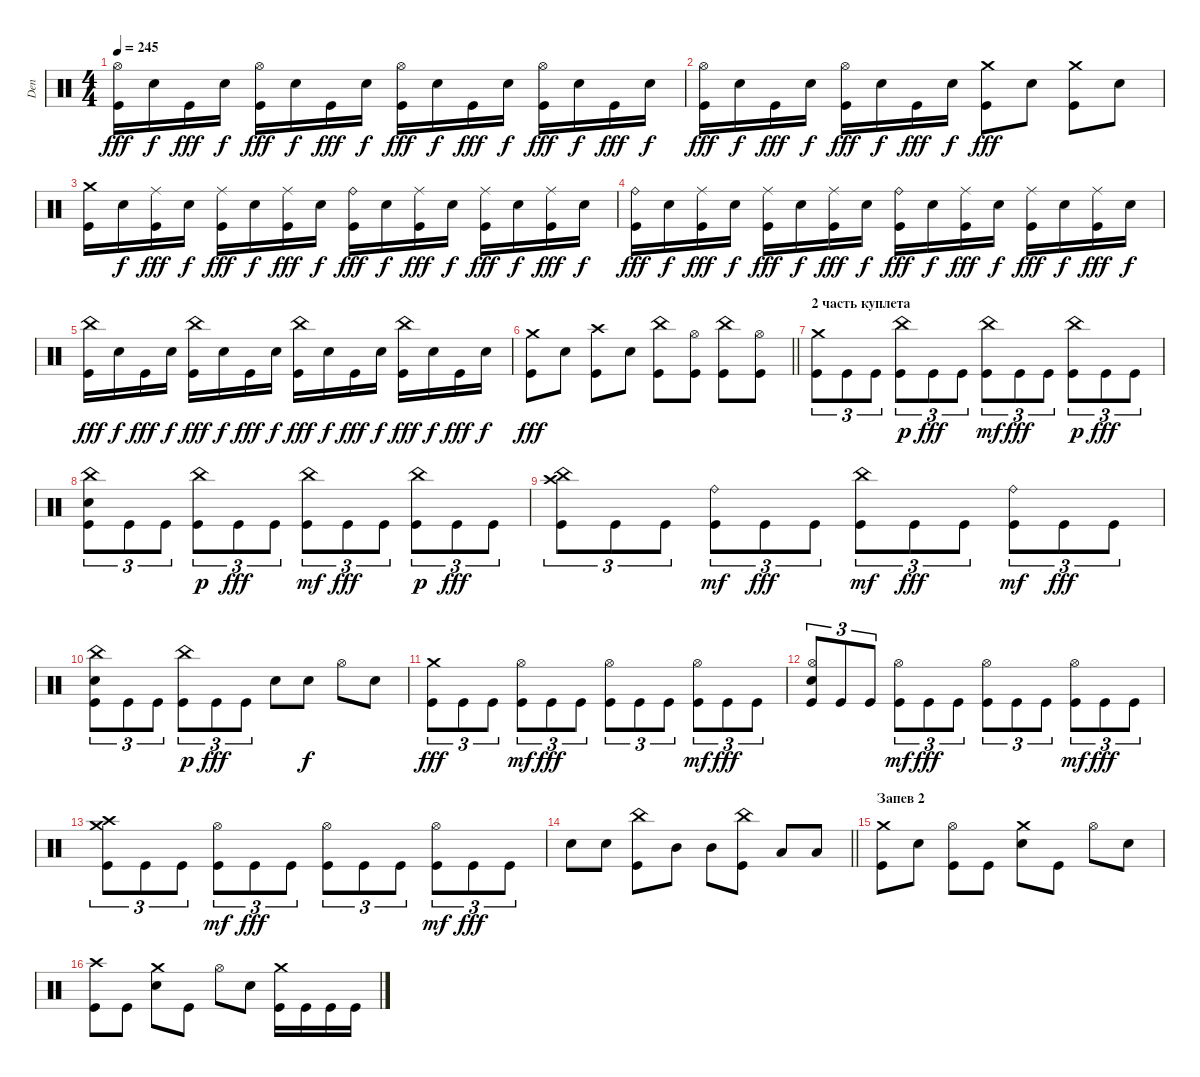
\track ("Den" "Den") {instrument percussion}
\staff {score}
\articulation defaults
\ts (4 4)
\tempo 245
\clef neutral
\ks c
("Kick (hit)" "Hi-Hat (open)").16{dy fff} "Electric Snare (hit)".16{dy f} "Kick (hit)".16{dy fff} "Electric Snare (hit)".16{dy f} ("Kick (hit)" "Hi-Hat (open)").16{dy fff} "Electric Snare (hit)".16{dy f} "Kick (hit)".16{dy fff} "Electric Snare (hit)".16{dy f} ("Kick (hit)" "Hi-Hat (open)").16{dy fff} "Electric Snare (hit)".16{dy f} "Kick (hit)".16{dy fff} "Electric Snare (hit)".16{dy f} ("Kick (hit)" "Hi-Hat (open)").16{dy fff} "Electric Snare (hit)".16{dy f} "Kick (hit)".16{dy fff} "Electric Snare (hit)".16{dy f} |
("Kick (hit)" "Hi-Hat (open)").16{dy fff} "Electric Snare (hit)".16{dy f} "Kick (hit)".16{dy fff} "Electric Snare (hit)".16{dy f} ("Kick (hit)" "Hi-Hat (open)").16{dy fff} "Electric Snare (hit)".16{dy f} "Kick (hit)".16{dy fff} "Electric Snare (hit)".16{dy f} ("Crash medium (hit)" "Kick (hit)").8{dy fff} "Electric Snare (hit)".8 ("Crash medium (hit)" "Kick (hit)").8 "Electric Snare (hit)".8 |
("Crash medium (hit)" "Kick (hit)").16 "Electric Snare (hit)".16{dy f} ("Kick (hit)" "Ride (middle)").16{dy fff} "Electric Snare (hit)".16{dy f} ("Kick (hit)" "Ride (middle)").16{dy fff} "Electric Snare (hit)".16{dy f} ("Kick (hit)" "Ride (middle)").16{dy fff} "Electric Snare (hit)".16{dy f} ("Kick (hit)" "Ride (bell)").16{dy fff} "Electric Snare (hit)".16{dy f} ("Kick (hit)" "Ride (middle)").16{dy fff} "Electric Snare (hit)".16{dy f} ("Kick (hit)" "Ride (middle)").16{dy fff} "Electric Snare (hit)".16{dy f} ("Kick (hit)" "Ride (middle)").16{dy fff} "Electric Snare (hit)".16{dy f} |
("Kick (hit)" "Ride (bell)").16{dy fff} "Electric Snare (hit)".16{dy f} ("Kick (hit)" "Ride (middle)").16{dy fff} "Electric Snare (hit)".16{dy f} ("Kick (hit)" "Ride (middle)").16{dy fff} "Electric Snare (hit)".16{dy f} ("Kick (hit)" "Ride (middle)").16{dy fff} "Electric Snare (hit)".16{dy f} ("Kick (hit)" "Ride (bell)").16{dy fff} "Electric Snare (hit)".16{dy f} ("Kick (hit)" "Ride (middle)").16{dy fff} "Electric Snare (hit)".16{dy f} ("Kick (hit)" "Ride (middle)").16{dy fff} "Electric Snare (hit)".16{dy f} ("Kick (hit)" "Ride (middle)").16{dy fff} "Electric Snare (hit)".16{dy f} |
("Kick (hit)" "China (hit)").16{dy fff} "Electric Snare (hit)".16{dy f} "Kick (hit)".16{dy fff} "Electric Snare (hit)".16{dy f} ("Kick (hit)" "China (hit)").16{dy fff} "Electric Snare (hit)".16{dy f} "Kick (hit)".16{dy fff} "Electric Snare (hit)".16{dy f} ("Kick (hit)" "China (hit)").16{dy fff} "Electric Snare (hit)".16{dy f} "Kick (hit)".16{dy fff} "Electric Snare (hit)".16{dy f} ("Kick (hit)" "China (hit)").16{dy fff} "Electric Snare (hit)".16{dy f} "Kick (hit)".16{dy fff} "Electric Snare (hit)".16{dy f} |
\barLineRight lightlight
("Crash medium (hit)" "Kick (hit)").8{dy fff} "Electric Snare (hit)".8 ("Crash high (hit)" "Kick (hit)").8 "Electric Snare (hit)".8 ("Kick (hit)" "China (hit)").8 ("Kick (hit)" "Hi-Hat (open)").8 ("Kick (hit)" "China (hit)").8 ("Kick (hit)" "Hi-Hat (open)").8 |
\section ("" "2 часть куплета")
("Crash medium (hit)" "Kick (hit)").8{tu (3 2)} "Kick (hit)".8{tu (3 2)} "Kick (hit)".8{tu (3 2)} ("Kick (hit)" "China (hit)").8{tu (3 2) dy p} "Kick (hit)".8{tu (3 2) dy fff} "Kick (hit)".8{tu (3 2)} ("Kick (hit)" "China (hit)").8{tu (3 2) dy mf} "Kick (hit)".8{tu (3 2) dy fff} "Kick (hit)".8{tu (3 2)} ("Kick (hit)" "China (hit)").8{tu (3 2) dy p} "Kick (hit)".8{tu (3 2) dy fff} "Kick (hit)".8{tu (3 2)} |
("Kick (hit)" "China (hit)" "Electric Snare (hit)").8{tu (3 2)} "Kick (hit)".8{tu (3 2)} "Kick (hit)".8{tu (3 2)} ("Kick (hit)" "China (hit)").8{tu (3 2) dy p} "Kick (hit)".8{tu (3 2) dy fff} "Kick (hit)".8{tu (3 2)} ("Kick (hit)" "China (hit)").8{tu (3 2) dy mf} "Kick (hit)".8{tu (3 2) dy fff} "Kick (hit)".8{tu (3 2)} ("Kick (hit)" "China (hit)").8{tu (3 2) dy p} "Kick (hit)".8{tu (3 2) dy fff} "Kick (hit)".8{tu (3 2)} |
("Kick (hit)" "China (hit)" "Crash high (hit)").8{tu (3 2)} "Kick (hit)".8{tu (3 2)} "Kick (hit)".8{tu (3 2)} ("Kick (hit)" "Ride (bell)").8{tu (3 2) dy mf} "Kick (hit)".8{tu (3 2) dy fff} "Kick (hit)".8{tu (3 2)} ("Kick (hit)" "China (hit)").8{tu (3 2) dy mf} "Kick (hit)".8{tu (3 2) dy fff} "Kick (hit)".8{tu (3 2)} ("Kick (hit)" "Ride (bell)").8{tu (3 2) dy mf} "Kick (hit)".8{tu (3 2) dy fff} "Kick (hit)".8{tu (3 2)} |
("Kick (hit)" "China (hit)" "Electric Snare (hit)").8{tu (3 2)} "Kick (hit)".8{tu (3 2)} "Kick (hit)".8{tu (3 2)} ("Kick (hit)" "China (hit)").8{tu (3 2) dy p} "Kick (hit)".8{tu (3 2) dy fff} "Kick (hit)".8{tu (3 2)} "Electric Snare (hit)".8 "Electric Snare (hit)".8{dy f} "Hi-Hat (open)".8 "Electric Snare (hit)".8 |
("Crash medium (hit)" "Kick (hit)").8{tu (3 2) dy fff} "Kick (hit)".8{tu (3 2)} "Kick (hit)".8{tu (3 2)} ("Kick (hit)" "Hi-Hat (open)").8{tu (3 2) dy mf} "Kick (hit)".8{tu (3 2) dy fff} "Kick (hit)".8{tu (3 2)} ("Kick (hit)" "Hi-Hat (open)").8{tu (3 2)} "Kick (hit)".8{tu (3 2)} "Kick (hit)".8{tu (3 2)} ("Kick (hit)" "Hi-Hat (open)").8{tu (3 2) dy mf} "Kick (hit)".8{tu (3 2) dy fff} "Kick (hit)".8{tu (3 2)} |
("Kick (hit)" "Hi-Hat (open)" "Electric Snare (hit)").8{tu (3 2)} "Kick (hit)".8{tu (3 2)} "Kick (hit)".8{tu (3 2)} ("Kick (hit)" "Hi-Hat (open)").8{tu (3 2) dy mf} "Kick (hit)".8{tu (3 2) dy fff} "Kick (hit)".8{tu (3 2)} ("Kick (hit)" "Hi-Hat (open)").8{tu (3 2)} "Kick (hit)".8{tu (3 2)} "Kick (hit)".8{tu (3 2)} ("Kick (hit)" "Hi-Hat (open)").8{tu (3 2) dy mf} "Kick (hit)".8{tu (3 2) dy fff} "Kick (hit)".8{tu (3 2)} |
("Kick (hit)" "Crash high (hit)" "Crash medium (hit)").8{tu (3 2)} "Kick (hit)".8{tu (3 2)} "Kick (hit)".8{tu (3 2)} ("Kick (hit)" "Hi-Hat (open)").8{tu (3 2) dy mf} "Kick (hit)".8{tu (3 2) dy fff} "Kick (hit)".8{tu (3 2)} ("Kick (hit)" "Hi-Hat (open)").8{tu (3 2)} "Kick (hit)".8{tu (3 2)} "Kick (hit)".8{tu (3 2)} ("Kick (hit)" "Hi-Hat (open)").8{tu (3 2) dy mf} "Kick (hit)".8{tu (3 2) dy fff} "Kick (hit)".8{tu (3 2)} |
\barLineRight lightlight "Electric Snare (hit)".8 "Electric Snare (hit)".8
("Kick (hit)" "China (hit)").8 "Mid Tom (hit)".8 "Mid Tom (hit)".8 ("Kick (hit)" "China (hit)").8 "Low Tom (hit)".8 "Low Tom (hit)".8 |
\section ("" "Запев 2")
("Crash medium (hit)" "Kick (hit)").8 "Electric Snare (hit)".8 ("Kick (hit)" "Hi-Hat (open)").8 "Kick (hit)".8 ("Crash medium (hit)" "Electric Snare (hit)").8 "Kick (hit)".8 "Hi-Hat (open)".8 "Electric Snare (hit)".8 |
("Kick (hit)" "Crash high (hit)").8 "Kick (hit)".8 ("Electric Snare (hit)" "Crash medium (hit)").8 "Kick (hit)".8 "Hi-Hat (open)".8 "Electric Snare (hit)".8 ("Kick (hit)" "Crash medium (hit)").16 "Kick (hit)".16 "Kick (hit)".16 "Kick (hit)".16
